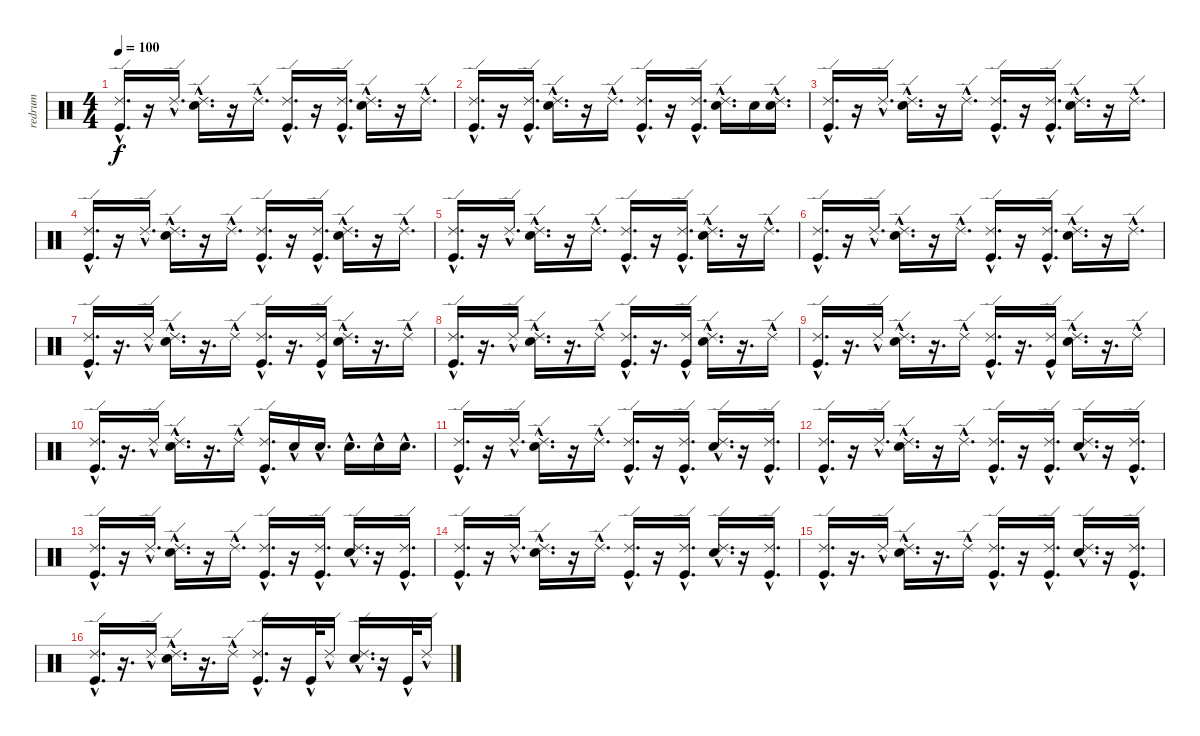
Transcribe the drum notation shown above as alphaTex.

\track ("redrum" "redrum") {instrument percussion}
\staff {score}
\articulation defaults
\ts (4 4)
\tempo 100
\clef neutral
\ks c
("Ride (edge) 2"{hac} "Kick (hit)"{hac}).16{d dy f} r.16 "Ride (edge) 2"{hac}.16{d} ("Electric Snare (hit)"{hac} "Ride (edge) 2"{hac}).16{d} r.16 "Ride (edge) 2"{hac}.16{d} ("Kick (hit)"{hac} "Ride (edge) 2"{hac}).16{d} r.16 ("Kick (hit)"{hac} "Ride (edge) 2"{hac}).16{d} ("Electric Snare (hit)"{hac} "Ride (edge) 2"{hac}).16{d} r.16 "Ride (edge) 2"{hac}.16{d} |
("Ride (edge) 2"{hac} "Kick (hit)"{hac}).16{d} r.16 ("Kick (hit)"{hac} "Ride (edge) 2"{hac}).16{d} ("Electric Snare (hit)"{hac} "Ride (edge) 2"{hac}).16{d} r.16 "Ride (edge) 2"{hac}.16{d} ("Kick (hit)"{hac} "Ride (edge) 2"{hac}).16{d} r.16 ("Kick (hit)"{hac} "Ride (edge) 2"{hac}).16{d} ("Electric Snare (hit)"{hac} "Ride (edge) 2"{hac}).16{d} "Electric Snare (hit)".16 ("Electric Snare (hit)"{hac} "Ride (edge) 2"{hac}).16{d} |
("Ride (edge) 2"{hac} "Kick (hit)"{hac}).16{d} r.16 "Ride (edge) 2"{hac}.16{d} ("Electric Snare (hit)"{hac} "Ride (edge) 2"{hac}).16{d} r.16 "Ride (edge) 2"{hac}.16{d} ("Kick (hit)"{hac} "Ride (edge) 2"{hac}).16{d} r.16 ("Kick (hit)"{hac} "Ride (edge) 2"{hac}).16{d} ("Electric Snare (hit)"{hac} "Ride (edge) 2"{hac}).16{d} r.16 "Ride (edge) 2"{hac}.16{d} |
("Ride (edge) 2"{hac} "Kick (hit)"{hac}).16{d} r.16 "Ride (edge) 2"{hac}.16{d} ("Electric Snare (hit)"{hac} "Ride (edge) 2"{hac}).16{d} r.16 "Ride (edge) 2"{hac}.16{d} ("Kick (hit)"{hac} "Ride (edge) 2"{hac}).16{d} r.16 ("Kick (hit)"{hac} "Ride (edge) 2"{hac}).16{d} ("Electric Snare (hit)"{hac} "Ride (edge) 2"{hac}).16{d} r.16 "Ride (edge) 2"{hac}.16{d} |
("Ride (edge) 2"{hac} "Kick (hit)"{hac}).16{d} r.16 "Ride (edge) 2"{hac}.16{d} ("Electric Snare (hit)"{hac} "Ride (edge) 2"{hac}).16{d} r.16 "Ride (edge) 2"{hac}.16{d} ("Kick (hit)"{hac} "Ride (edge) 2"{hac}).16{d} r.16 ("Kick (hit)"{hac} "Ride (edge) 2"{hac}).16{d} ("Electric Snare (hit)"{hac} "Ride (edge) 2"{hac}).16{d} r.16 "Ride (edge) 2"{hac}.16{d} |
("Ride (edge) 2"{hac} "Kick (hit)"{hac}).16{d} r.16 "Ride (edge) 2"{hac}.16{d} ("Electric Snare (hit)"{hac} "Ride (edge) 2"{hac}).16{d} r.16 "Ride (edge) 2"{hac}.16{d} ("Kick (hit)"{hac} "Ride (edge) 2"{hac}).16{d} r.16 ("Kick (hit)"{hac} "Ride (edge) 2"{hac}).16{d} ("Electric Snare (hit)"{hac} "Ride (edge) 2"{hac}).16{d} r.16 "Ride (edge) 2"{hac}.16{d} |
("Ride (edge) 2"{hac} "Kick (hit)"{hac}).16{d} r.16{d} "Ride (edge) 2"{hac}.16 ("Electric Snare (hit)"{hac} "Ride (edge) 2"{hac}).16{d} r.16{d} "Ride (edge) 2"{hac}.16 ("Kick (hit)"{hac} "Ride (edge) 2"{hac}).16{d} r.16{d} ("Kick (hit)"{hac} "Ride (edge) 2"{hac}).16 ("Electric Snare (hit)"{hac} "Ride (edge) 2"{hac}).16{d} r.16{d} "Ride (edge) 2"{hac}.16 |
("Ride (edge) 2"{hac} "Kick (hit)"{hac}).16{d} r.16{d} "Ride (edge) 2"{hac}.16 ("Electric Snare (hit)"{hac} "Ride (edge) 2"{hac}).16{d} r.16{d} "Ride (edge) 2"{hac}.16 ("Kick (hit)"{hac} "Ride (edge) 2"{hac}).16{d} r.16{d} ("Kick (hit)"{hac} "Ride (edge) 2"{hac}).16 ("Electric Snare (hit)"{hac} "Ride (edge) 2"{hac}).16{d} r.16{d} "Ride (edge) 2"{hac}.16 |
("Ride (edge) 2"{hac} "Kick (hit)"{hac}).16{d} r.16{d} "Ride (edge) 2"{hac}.16 ("Electric Snare (hit)"{hac} "Ride (edge) 2"{hac}).16{d} r.16{d} "Ride (edge) 2"{hac}.16 ("Kick (hit)"{hac} "Ride (edge) 2"{hac}).16{d} r.16{d} ("Kick (hit)"{hac} "Ride (edge) 2"{hac}).16 ("Electric Snare (hit)"{hac} "Ride (edge) 2"{hac}).16{d} r.16{d} "Ride (edge) 2"{hac}.16 |
("Ride (edge) 2"{hac} "Kick (hit)"{hac}).16{d} r.16{d} "Ride (edge) 2"{hac}.16 ("Electric Snare (hit)"{hac} "Ride (edge) 2"{hac}).16{d} r.16{d} "Ride (edge) 2"{hac}.16 ("Kick (hit)"{hac} "Ride (edge) 2"{hac}).16{d} "Electric Snare (hit)"{hac}.16 "Electric Snare (hit)"{hac}.16{d} "Electric Snare (hit)"{hac}.16{d} "Electric Snare (hit)"{hac}.16 "Electric Snare (hit)"{hac}.16{d} |
("Kick (hit)"{hac} "Ride (edge) 2"{hac}).16{d} r.16 "Ride (edge) 2"{hac}.16{d} ("Electric Snare (hit)"{hac} "Ride (edge) 2"{hac}).16{d} r.16 "Ride (edge) 2"{hac}.16{d} ("Kick (hit)"{hac} "Ride (edge) 2"{hac}).16{d} r.16 ("Kick (hit)"{hac} "Ride (edge) 2"{hac}).16{d} ("Electric Snare (hit)"{hac} "Ride (edge) 2"{hac}).16{d} r.16 ("Kick (hit)"{hac} "Ride (edge) 2"{hac}).16{d} |
("Kick (hit)"{hac} "Ride (edge) 2"{hac}).16{d} r.16 "Ride (edge) 2"{hac}.16{d} ("Electric Snare (hit)"{hac} "Ride (edge) 2"{hac}).16{d} r.16 "Ride (edge) 2"{hac}.16{d} ("Kick (hit)"{hac} "Ride (edge) 2"{hac}).16{d} r.16 ("Kick (hit)"{hac} "Ride (edge) 2"{hac}).16{d} ("Electric Snare (hit)"{hac} "Ride (edge) 2"{hac}).16{d} r.16 ("Kick (hit)"{hac} "Ride (edge) 2"{hac}).16{d} |
("Kick (hit)"{hac} "Ride (edge) 2"{hac}).16{d} r.16 "Ride (edge) 2"{hac}.16{d} ("Electric Snare (hit)"{hac} "Ride (edge) 2"{hac}).16{d} r.16 "Ride (edge) 2"{hac}.16{d} ("Kick (hit)"{hac} "Ride (edge) 2"{hac}).16{d} r.16 ("Kick (hit)"{hac} "Ride (edge) 2"{hac}).16{d} ("Electric Snare (hit)"{hac} "Ride (edge) 2"{hac}).16{d} r.16 ("Kick (hit)"{hac} "Ride (edge) 2"{hac}).16{d} |
("Kick (hit)"{hac} "Ride (edge) 2"{hac}).16{d} r.16 "Ride (edge) 2"{hac}.16{d} ("Electric Snare (hit)"{hac} "Ride (edge) 2"{hac}).16{d} r.16 "Ride (edge) 2"{hac}.16{d} ("Kick (hit)"{hac} "Ride (edge) 2"{hac}).16{d} r.16 ("Kick (hit)"{hac} "Ride (edge) 2"{hac}).16{d} ("Electric Snare (hit)"{hac} "Ride (edge) 2"{hac}).16{d} r.16 ("Kick (hit)"{hac} "Ride (edge) 2"{hac}).16{d} |
("Kick (hit)"{hac} "Ride (edge) 2"{hac}).16{d} r.16{d} "Ride (edge) 2"{hac}.16 ("Electric Snare (hit)"{hac} "Ride (edge) 2"{hac}).16{d} r.16{d} "Ride (edge) 2"{hac}.16 ("Kick (hit)"{hac} "Ride (edge) 2"{hac}).16{d} r.16 ("Kick (hit)"{hac} "Ride (edge) 2"{hac}).16{d} ("Electric Snare (hit)"{hac} "Ride (edge) 2"{hac}).16{d} r.16 ("Kick (hit)"{hac} "Ride (edge) 2"{hac}).16{d} |
("Kick (hit)"{hac} "Ride (edge) 2"{hac}).16{d} r.16{d} "Ride (edge) 2"{hac}.16 ("Electric Snare (hit)"{hac} "Ride (edge) 2"{hac}).16{d} r.16{d} "Ride (edge) 2"{hac}.16 ("Kick (hit)"{hac} "Ride (edge) 2"{hac}).16{d} r.16 "Kick (hit)"{hac}.32 "Ride (edge) 2"{hac}.16 ("Electric Snare (hit)"{hac} "Ride (edge) 2"{hac}).16{d} r.16 "Kick (hit)"{hac}.32 "Ride (edge) 2"{hac}.16
